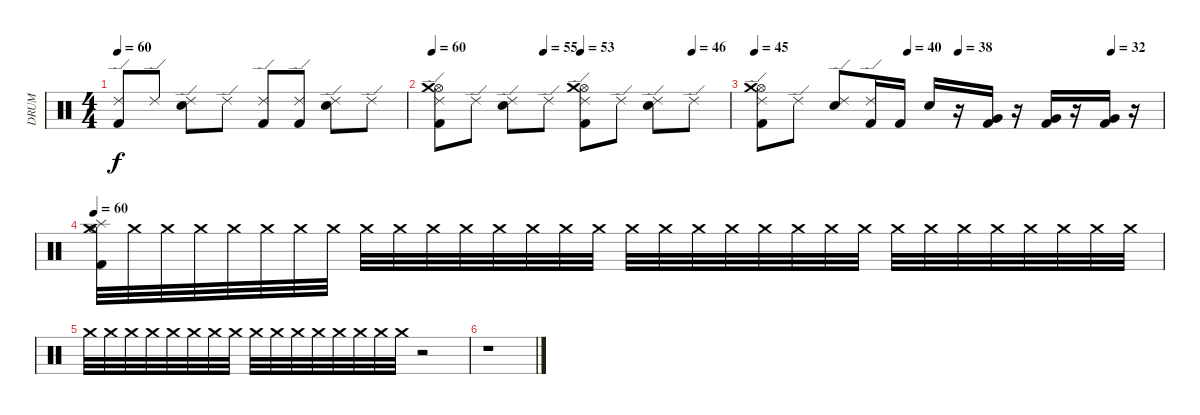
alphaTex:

\track (" DRUM" " DRUM") {instrument percussion}
\staff {score}
\articulation defaults
\ts (4 4)
\tempo 60
\clef neutral
\ks c
("Kick (hit) 2" "Ride (edge) 2").8{dy f} "Ride (edge) 2".8 ("Electric Snare (hit)" "Ride (edge) 2").8 "Ride (edge) 2".8 ("Kick (hit) 2" "Ride (edge) 2").8 ("Kick (hit) 2" "Ride (edge) 2").8 ("Electric Snare (hit)" "Ride (edge) 2").8 "Ride (edge) 2".8 |
\tempo 60
\tempo (55 0.375)
\tempo (53 0.5)
\tempo (46 0.875)
("Hi-Hat (open)" "Crash medium (hit)" "Kick (hit) 2" "Ride (edge) 2").8 "Ride (edge) 2".8 ("Electric Snare (hit)" "Ride (edge) 2").8 "Ride (edge) 2".8 ("Hi-Hat (open)" "Crash medium (hit)" "Kick (hit) 2" "Ride (edge) 2").8 "Ride (edge) 2".8 ("Electric Snare (hit)" "Ride (edge) 2").8 "Ride (edge) 2".8 |
\tempo 45
\tempo (40 0.375)
\tempo (38 0.5)
\tempo (32 0.875)
("Hi-Hat (open)" "Crash medium (hit)" "Kick (hit) 2" "Ride (edge) 2").8 "Ride (edge) 2".8 ("Electric Snare (hit)" "Ride (edge) 2").8 ("Kick (hit) 2" "Ride (edge) 2").16 "Kick (hit) 2".16 "Electric Snare (hit)".16 r.16 ("Very Low Tom (hit)" "Kick (hit) 2").16 r.16 ("Kick (hit) 2" "Very Low Tom (hit)").16 r.16 ("Kick (hit) 2" "Very Low Tom (hit)").16 r.16 |
\tempo 60
("Crash medium (hit)" "Hi-Hat (open)" "Splash (hit)" "Kick (hit) 2").32 "Crash medium (hit)".32 "Crash medium (hit)".32 "Crash medium (hit)".32 "Crash medium (hit)".32 "Crash medium (hit)".32 "Crash medium (hit)".32 "Crash medium (hit)".32 "Crash medium (hit)".32{volume 16} "Crash medium (hit)".32{volume 15} "Crash medium (hit)".32{volume 15} "Crash medium (hit)".32{volume 15} "Crash medium (hit)".32{volume 14} "Crash medium (hit)".32{volume 14} "Crash medium (hit)".32{volume 14} "Crash medium (hit)".32{volume 14} "Crash medium (hit)".32{volume 13} "Crash medium (hit)".32{volume 13} "Crash medium (hit)".32{volume 13} "Crash medium (hit)".32{volume 12} "Crash medium (hit)".32{volume 12} "Crash medium (hit)".32{volume 12} "Crash medium (hit)".32{volume 12} "Crash medium (hit)".32{volume 11} "Crash medium (hit)".32{volume 11} "Crash medium (hit)".32{volume 11} "Crash medium (hit)".32{volume 10} "Crash medium (hit)".32{volume 10} "Crash medium (hit)".32{volume 10} "Crash medium (hit)".32{volume 10} "Crash medium (hit)".32{volume 9} "Crash medium (hit)".32{volume 9} |
"Crash medium (hit)".32{volume 9} "Crash medium (hit)".32{volume 8} "Crash medium (hit)".32{volume 8} "Crash medium (hit)".32{volume 8} "Crash medium (hit)".32{volume 8} "Crash medium (hit)".32{volume 7} "Crash medium (hit)".32{volume 7} "Crash medium (hit)".32{volume 7} "Crash medium (hit)".32{volume 6} "Crash medium (hit)".32{volume 6} "Crash medium (hit)".32{volume 6} "Crash medium (hit)".32{volume 6} "Crash medium (hit)".32{volume 5} "Crash medium (hit)".32{volume 5} "Crash medium (hit)".32{volume 5} "Crash medium (hit)".32{volume 4} r.2 |
r.1
